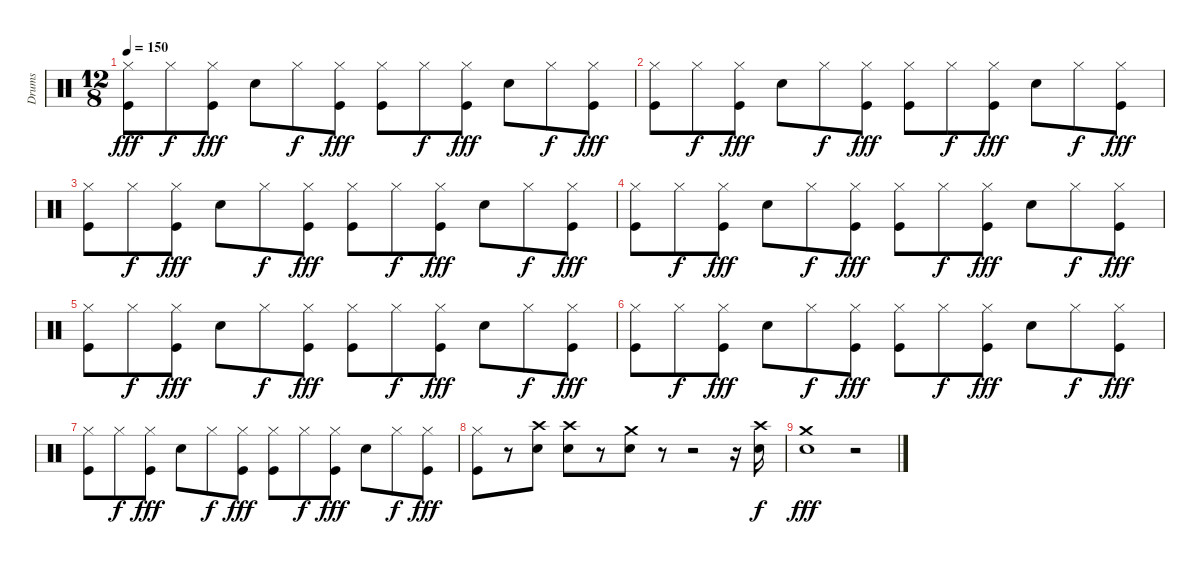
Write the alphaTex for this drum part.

\track ("Drums" "Drums") {instrument percussion}
\staff {score}
\articulation defaults
\ts (12 8)
\tempo 150
\clef neutral
\ks c
("Kick (hit)" "Hi-Hat (closed)").8{dy fff} "Hi-Hat (closed)".8{dy f} ("Kick (hit)" "Hi-Hat (closed)").8{dy fff} "Snare (hit) 2".8 "Hi-Hat (closed)".8{dy f} ("Kick (hit)" "Hi-Hat (closed)").8{dy fff} ("Kick (hit)" "Hi-Hat (closed)").8 "Hi-Hat (closed)".8{dy f} ("Kick (hit)" "Hi-Hat (closed)").8{dy fff} "Snare (hit) 2".8 "Hi-Hat (closed)".8{dy f} ("Kick (hit)" "Hi-Hat (closed)").8{dy fff} |
("Kick (hit)" "Hi-Hat (closed)").8 "Hi-Hat (closed)".8{dy f} ("Kick (hit)" "Hi-Hat (closed)").8{dy fff} "Snare (hit) 2".8 "Hi-Hat (closed)".8{dy f} ("Kick (hit)" "Hi-Hat (closed)").8{dy fff} ("Kick (hit)" "Hi-Hat (closed)").8 "Hi-Hat (closed)".8{dy f} ("Kick (hit)" "Hi-Hat (closed)").8{dy fff} "Snare (hit) 2".8 "Hi-Hat (closed)".8{dy f} ("Kick (hit)" "Hi-Hat (closed)").8{dy fff} |
("Kick (hit)" "Hi-Hat (closed)").8 "Hi-Hat (closed)".8{dy f} ("Kick (hit)" "Hi-Hat (closed)").8{dy fff} "Snare (hit) 2".8 "Hi-Hat (closed)".8{dy f} ("Kick (hit)" "Hi-Hat (closed)").8{dy fff} ("Kick (hit)" "Hi-Hat (closed)").8 "Hi-Hat (closed)".8{dy f} ("Kick (hit)" "Hi-Hat (closed)").8{dy fff} "Snare (hit) 2".8 "Hi-Hat (closed)".8{dy f} ("Kick (hit)" "Hi-Hat (closed)").8{dy fff} |
("Kick (hit)" "Hi-Hat (closed)").8 "Hi-Hat (closed)".8{dy f} ("Kick (hit)" "Hi-Hat (closed)").8{dy fff} "Snare (hit) 2".8 "Hi-Hat (closed)".8{dy f} ("Kick (hit)" "Hi-Hat (closed)").8{dy fff} ("Kick (hit)" "Hi-Hat (closed)").8 "Hi-Hat (closed)".8{dy f} ("Kick (hit)" "Hi-Hat (closed)").8{dy fff} "Snare (hit) 2".8 "Hi-Hat (closed)".8{dy f} ("Kick (hit)" "Hi-Hat (closed)").8{dy fff} |
("Kick (hit)" "Hi-Hat (closed)").8 "Hi-Hat (closed)".8{dy f} ("Kick (hit)" "Hi-Hat (closed)").8{dy fff} "Snare (hit) 2".8 "Hi-Hat (closed)".8{dy f} ("Kick (hit)" "Hi-Hat (closed)").8{dy fff} ("Kick (hit)" "Hi-Hat (closed)").8 "Hi-Hat (closed)".8{dy f} ("Kick (hit)" "Hi-Hat (closed)").8{dy fff} "Snare (hit) 2".8 "Hi-Hat (closed)".8{dy f} ("Kick (hit)" "Hi-Hat (closed)").8{dy fff} |
("Kick (hit)" "Hi-Hat (closed)").8 "Hi-Hat (closed)".8{dy f} ("Kick (hit)" "Hi-Hat (closed)").8{dy fff} "Snare (hit) 2".8 "Hi-Hat (closed)".8{dy f} ("Kick (hit)" "Hi-Hat (closed)").8{dy fff} ("Kick (hit)" "Hi-Hat (closed)").8 "Hi-Hat (closed)".8{dy f} ("Kick (hit)" "Hi-Hat (closed)").8{dy fff} "Snare (hit) 2".8 "Hi-Hat (closed)".8{dy f} ("Kick (hit)" "Hi-Hat (closed)").8{dy fff} |
("Kick (hit)" "Hi-Hat (closed)").8 "Hi-Hat (closed)".8{dy f} ("Kick (hit)" "Hi-Hat (closed)").8{dy fff} "Snare (hit) 2".8 "Hi-Hat (closed)".8{dy f} ("Kick (hit)" "Hi-Hat (closed)").8{dy fff} ("Kick (hit)" "Hi-Hat (closed)").8 "Hi-Hat (closed)".8{dy f} ("Kick (hit)" "Hi-Hat (closed)").8{dy fff} "Snare (hit) 2".8 "Hi-Hat (closed)".8{dy f} ("Kick (hit)" "Hi-Hat (closed)").8{dy fff} |
("Kick (hit)" "Hi-Hat (closed)").8 r.8 ("Snare (hit) 2" "Crash high (hit)").8 ("Snare (hit) 2" "Crash high (hit)").8 r.8 ("Snare (hit) 2" "Crash medium (hit)").8 r.8 r.2 r.16 ("Snare (hit) 2" "Crash high (hit)").16{dy f} |
("Snare (hit) 2" "Crash medium (hit)").1{dy fff} r.2
